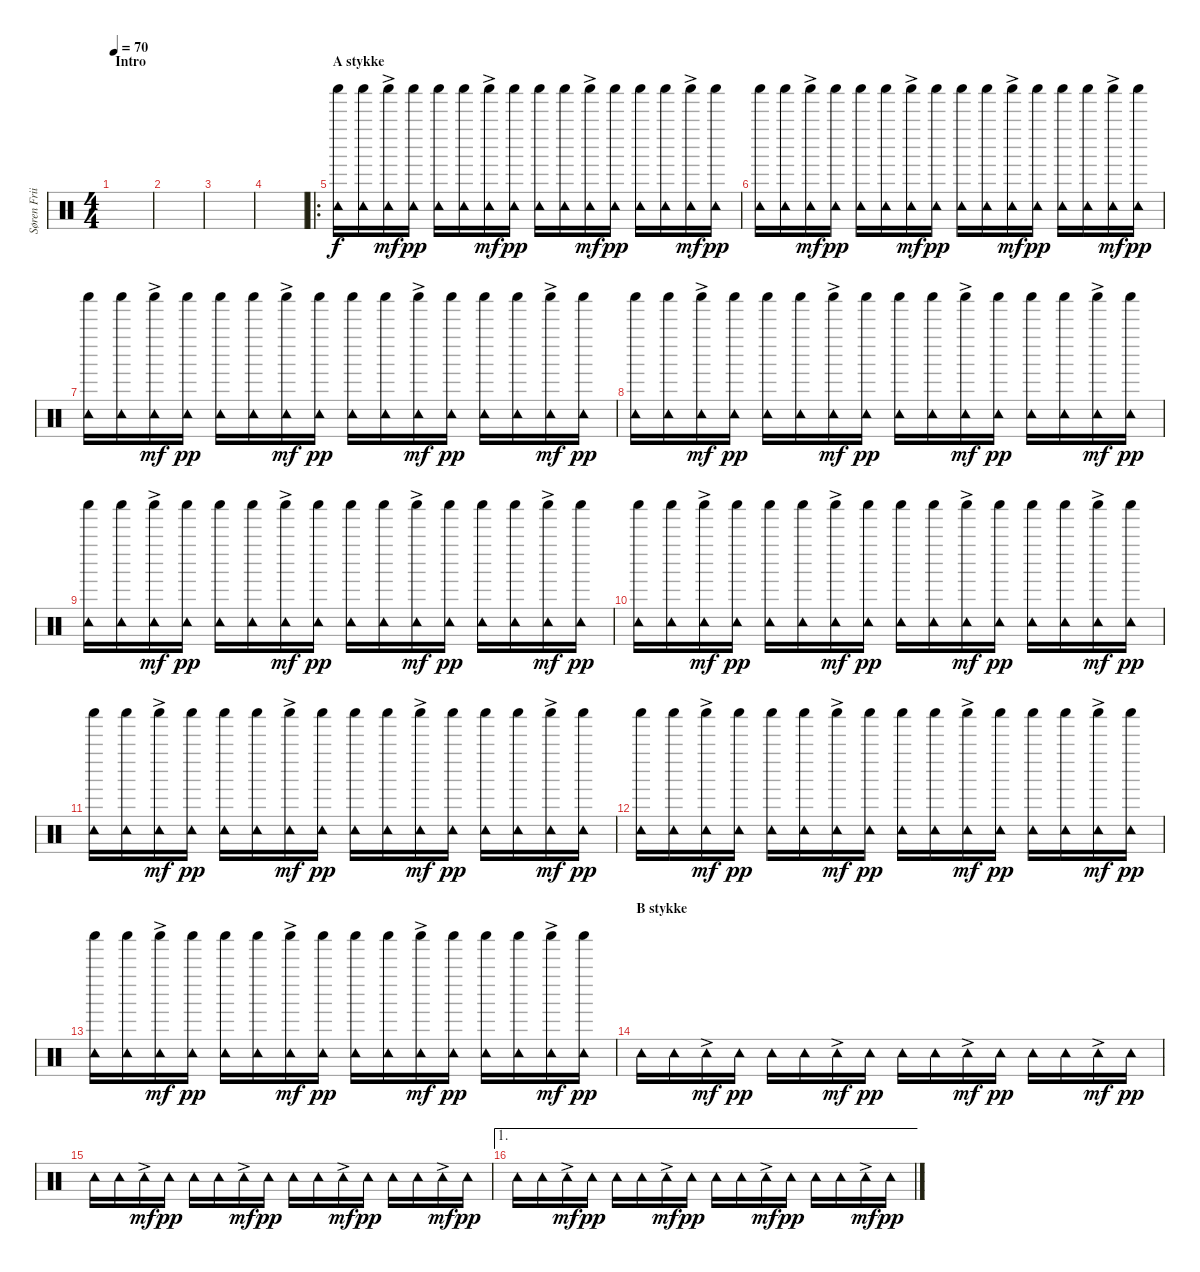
\track ("Søren Friis (Percussion)" "Søren Frii") {instrument percussion}
\staff {score}
\articulation defaults
\ts (4 4)
\section ("" "Intro")
\tempo 70
\clef neutral
\ks c
|
|
|
|
\ro
\section ("" "A stykke")
("Tambourine (hit)" "Shaker (hit)").16 ("Tambourine (hit)" "Shaker (hit)").16 ("Tambourine (hit)"{ac} "Shaker (hit)"{ac}).16{dy mf} ("Tambourine (hit)" "Shaker (hit)").16{dy pp} ("Tambourine (hit)" "Shaker (hit)").16 ("Tambourine (hit)" "Shaker (hit)").16 ("Tambourine (hit)"{ac} "Shaker (hit)"{ac}).16{dy mf} ("Tambourine (hit)" "Shaker (hit)").16{dy pp} ("Tambourine (hit)" "Shaker (hit)").16 ("Tambourine (hit)" "Shaker (hit)").16 ("Tambourine (hit)"{ac} "Shaker (hit)"{ac}).16{dy mf} ("Tambourine (hit)" "Shaker (hit)").16{dy pp} ("Tambourine (hit)" "Shaker (hit)").16 ("Tambourine (hit)" "Shaker (hit)").16 ("Tambourine (hit)"{ac} "Shaker (hit)"{ac}).16{dy mf} ("Tambourine (hit)" "Shaker (hit)").16{dy pp} |
("Tambourine (hit)" "Shaker (hit)").16 ("Tambourine (hit)" "Shaker (hit)").16 ("Tambourine (hit)"{ac} "Shaker (hit)"{ac}).16{dy mf} ("Tambourine (hit)" "Shaker (hit)").16{dy pp} ("Tambourine (hit)" "Shaker (hit)").16 ("Tambourine (hit)" "Shaker (hit)").16 ("Tambourine (hit)"{ac} "Shaker (hit)"{ac}).16{dy mf} ("Tambourine (hit)" "Shaker (hit)").16{dy pp} ("Tambourine (hit)" "Shaker (hit)").16 ("Tambourine (hit)" "Shaker (hit)").16 ("Tambourine (hit)"{ac} "Shaker (hit)"{ac}).16{dy mf} ("Tambourine (hit)" "Shaker (hit)").16{dy pp} ("Tambourine (hit)" "Shaker (hit)").16 ("Tambourine (hit)" "Shaker (hit)").16 ("Tambourine (hit)"{ac} "Shaker (hit)"{ac}).16{dy mf} ("Tambourine (hit)" "Shaker (hit)").16{dy pp} |
("Tambourine (hit)" "Shaker (hit)").16 ("Tambourine (hit)" "Shaker (hit)").16 ("Tambourine (hit)"{ac} "Shaker (hit)"{ac}).16{dy mf} ("Tambourine (hit)" "Shaker (hit)").16{dy pp} ("Tambourine (hit)" "Shaker (hit)").16 ("Tambourine (hit)" "Shaker (hit)").16 ("Tambourine (hit)"{ac} "Shaker (hit)"{ac}).16{dy mf} ("Tambourine (hit)" "Shaker (hit)").16{dy pp} ("Tambourine (hit)" "Shaker (hit)").16 ("Tambourine (hit)" "Shaker (hit)").16 ("Tambourine (hit)"{ac} "Shaker (hit)"{ac}).16{dy mf} ("Tambourine (hit)" "Shaker (hit)").16{dy pp} ("Tambourine (hit)" "Shaker (hit)").16 ("Tambourine (hit)" "Shaker (hit)").16 ("Tambourine (hit)"{ac} "Shaker (hit)"{ac}).16{dy mf} ("Tambourine (hit)" "Shaker (hit)").16{dy pp} |
("Tambourine (hit)" "Shaker (hit)").16 ("Tambourine (hit)" "Shaker (hit)").16 ("Tambourine (hit)"{ac} "Shaker (hit)"{ac}).16{dy mf} ("Tambourine (hit)" "Shaker (hit)").16{dy pp} ("Tambourine (hit)" "Shaker (hit)").16 ("Tambourine (hit)" "Shaker (hit)").16 ("Tambourine (hit)"{ac} "Shaker (hit)"{ac}).16{dy mf} ("Tambourine (hit)" "Shaker (hit)").16{dy pp} ("Tambourine (hit)" "Shaker (hit)").16 ("Tambourine (hit)" "Shaker (hit)").16 ("Tambourine (hit)"{ac} "Shaker (hit)"{ac}).16{dy mf} ("Tambourine (hit)" "Shaker (hit)").16{dy pp} ("Tambourine (hit)" "Shaker (hit)").16 ("Tambourine (hit)" "Shaker (hit)").16 ("Tambourine (hit)"{ac} "Shaker (hit)"{ac}).16{dy mf} ("Tambourine (hit)" "Shaker (hit)").16{dy pp} |
("Tambourine (hit)" "Shaker (hit)").16 ("Tambourine (hit)" "Shaker (hit)").16 ("Tambourine (hit)"{ac} "Shaker (hit)"{ac}).16{dy mf} ("Tambourine (hit)" "Shaker (hit)").16{dy pp} ("Tambourine (hit)" "Shaker (hit)").16 ("Tambourine (hit)" "Shaker (hit)").16 ("Tambourine (hit)"{ac} "Shaker (hit)"{ac}).16{dy mf} ("Tambourine (hit)" "Shaker (hit)").16{dy pp} ("Tambourine (hit)" "Shaker (hit)").16 ("Tambourine (hit)" "Shaker (hit)").16 ("Tambourine (hit)"{ac} "Shaker (hit)"{ac}).16{dy mf} ("Tambourine (hit)" "Shaker (hit)").16{dy pp} ("Tambourine (hit)" "Shaker (hit)").16 ("Tambourine (hit)" "Shaker (hit)").16 ("Tambourine (hit)"{ac} "Shaker (hit)"{ac}).16{dy mf} ("Tambourine (hit)" "Shaker (hit)").16{dy pp} |
("Tambourine (hit)" "Shaker (hit)").16 ("Tambourine (hit)" "Shaker (hit)").16 ("Tambourine (hit)"{ac} "Shaker (hit)"{ac}).16{dy mf} ("Tambourine (hit)" "Shaker (hit)").16{dy pp} ("Tambourine (hit)" "Shaker (hit)").16 ("Tambourine (hit)" "Shaker (hit)").16 ("Tambourine (hit)"{ac} "Shaker (hit)"{ac}).16{dy mf} ("Tambourine (hit)" "Shaker (hit)").16{dy pp} ("Tambourine (hit)" "Shaker (hit)").16 ("Tambourine (hit)" "Shaker (hit)").16 ("Tambourine (hit)"{ac} "Shaker (hit)"{ac}).16{dy mf} ("Tambourine (hit)" "Shaker (hit)").16{dy pp} ("Tambourine (hit)" "Shaker (hit)").16 ("Tambourine (hit)" "Shaker (hit)").16 ("Tambourine (hit)"{ac} "Shaker (hit)"{ac}).16{dy mf} ("Tambourine (hit)" "Shaker (hit)").16{dy pp} |
("Tambourine (hit)" "Shaker (hit)").16 ("Tambourine (hit)" "Shaker (hit)").16 ("Tambourine (hit)"{ac} "Shaker (hit)"{ac}).16{dy mf} ("Tambourine (hit)" "Shaker (hit)").16{dy pp} ("Tambourine (hit)" "Shaker (hit)").16 ("Tambourine (hit)" "Shaker (hit)").16 ("Tambourine (hit)"{ac} "Shaker (hit)"{ac}).16{dy mf} ("Tambourine (hit)" "Shaker (hit)").16{dy pp} ("Tambourine (hit)" "Shaker (hit)").16 ("Tambourine (hit)" "Shaker (hit)").16 ("Tambourine (hit)"{ac} "Shaker (hit)"{ac}).16{dy mf} ("Tambourine (hit)" "Shaker (hit)").16{dy pp} ("Tambourine (hit)" "Shaker (hit)").16 ("Tambourine (hit)" "Shaker (hit)").16 ("Tambourine (hit)"{ac} "Shaker (hit)"{ac}).16{dy mf} ("Tambourine (hit)" "Shaker (hit)").16{dy pp} |
("Tambourine (hit)" "Shaker (hit)").16 ("Tambourine (hit)" "Shaker (hit)").16 ("Tambourine (hit)"{ac} "Shaker (hit)"{ac}).16{dy mf} ("Tambourine (hit)" "Shaker (hit)").16{dy pp} ("Tambourine (hit)" "Shaker (hit)").16 ("Tambourine (hit)" "Shaker (hit)").16 ("Tambourine (hit)"{ac} "Shaker (hit)"{ac}).16{dy mf} ("Tambourine (hit)" "Shaker (hit)").16{dy pp} ("Tambourine (hit)" "Shaker (hit)").16 ("Tambourine (hit)" "Shaker (hit)").16 ("Tambourine (hit)"{ac} "Shaker (hit)"{ac}).16{dy mf} ("Tambourine (hit)" "Shaker (hit)").16{dy pp} ("Tambourine (hit)" "Shaker (hit)").16 ("Tambourine (hit)" "Shaker (hit)").16 ("Tambourine (hit)"{ac} "Shaker (hit)"{ac}).16{dy mf} ("Tambourine (hit)" "Shaker (hit)").16{dy pp} |
("Tambourine (hit)" "Shaker (hit)").16 ("Tambourine (hit)" "Shaker (hit)").16 ("Tambourine (hit)"{ac} "Shaker (hit)"{ac}).16{dy mf} ("Tambourine (hit)" "Shaker (hit)").16{dy pp} ("Tambourine (hit)" "Shaker (hit)").16 ("Tambourine (hit)" "Shaker (hit)").16 ("Tambourine (hit)"{ac} "Shaker (hit)"{ac}).16{dy mf} ("Tambourine (hit)" "Shaker (hit)").16{dy pp} ("Tambourine (hit)" "Shaker (hit)").16 ("Tambourine (hit)" "Shaker (hit)").16 ("Tambourine (hit)"{ac} "Shaker (hit)"{ac}).16{dy mf} ("Tambourine (hit)" "Shaker (hit)").16{dy pp} ("Tambourine (hit)" "Shaker (hit)").16 ("Tambourine (hit)" "Shaker (hit)").16 ("Tambourine (hit)"{ac} "Shaker (hit)"{ac}).16{dy mf} ("Tambourine (hit)" "Shaker (hit)").16{dy pp} |
\section ("" "B stykke")
"Tambourine (hit)".16 "Tambourine (hit)".16 "Tambourine (hit)"{ac}.16{dy mf} "Tambourine (hit)".16{dy pp} "Tambourine (hit)".16 "Tambourine (hit)".16 "Tambourine (hit)"{ac}.16{dy mf} "Tambourine (hit)".16{dy pp} "Tambourine (hit)".16 "Tambourine (hit)".16 "Tambourine (hit)"{ac}.16{dy mf} "Tambourine (hit)".16{dy pp} "Tambourine (hit)".16 "Tambourine (hit)".16 "Tambourine (hit)"{ac}.16{dy mf} "Tambourine (hit)".16{dy pp} |
"Tambourine (hit)".16 "Tambourine (hit)".16 "Tambourine (hit)"{ac}.16{dy mf} "Tambourine (hit)".16{dy pp} "Tambourine (hit)".16 "Tambourine (hit)".16 "Tambourine (hit)"{ac}.16{dy mf} "Tambourine (hit)".16{dy pp} "Tambourine (hit)".16 "Tambourine (hit)".16 "Tambourine (hit)"{ac}.16{dy mf} "Tambourine (hit)".16{dy pp} "Tambourine (hit)".16 "Tambourine (hit)".16 "Tambourine (hit)"{ac}.16{dy mf} "Tambourine (hit)".16{dy pp} |
\ae 1 "Tambourine (hit)".16 "Tambourine (hit)".16 "Tambourine (hit)"{ac}.16{dy mf} "Tambourine (hit)".16{dy pp} "Tambourine (hit)".16 "Tambourine (hit)".16 "Tambourine (hit)"{ac}.16{dy mf} "Tambourine (hit)".16{dy pp} "Tambourine (hit)".16 "Tambourine (hit)".16 "Tambourine (hit)"{ac}.16{dy mf} "Tambourine (hit)".16{dy pp} "Tambourine (hit)".16 "Tambourine (hit)".16 "Tambourine (hit)"{ac}.16{dy mf} "Tambourine (hit)".16{dy pp}
